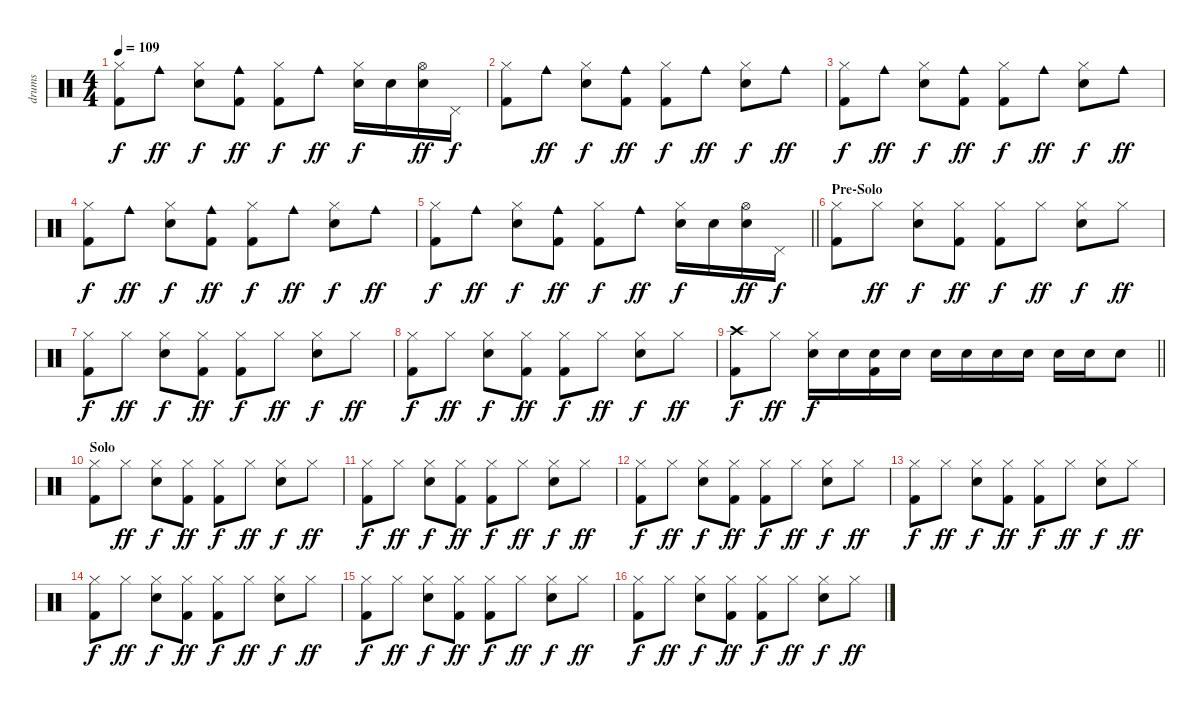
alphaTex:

\track ("drums" "drums") {instrument percussion}
\staff {score}
\articulation defaults
\ts (4 4)
\tempo 109
\clef neutral
\ks aminor
("Hi-Hat (closed)" "Kick (hit) 2").8{dy f} "Cowbell medium (hit)".8{dy ff} ("Hi-Hat (closed)" "Snare (hit) 2").8{dy f} ("Cowbell medium (hit)" "Kick (hit) 2").8{dy ff} ("Hi-Hat (closed)" "Kick (hit) 2").8{dy f} "Cowbell medium (hit)".8{dy ff} ("Hi-Hat (closed)" "Snare (hit) 2").16{dy f} "Snare (hit) 2".16 ("Hi-Hat (open)" "Snare (hit) 2").16{dy ff} "Pedal Hi-Hat (hit)".16{dy f} |
("Hi-Hat (closed)" "Kick (hit) 2").8 "Cowbell medium (hit)".8{dy ff} ("Hi-Hat (closed)" "Snare (hit) 2").8{dy f} ("Cowbell medium (hit)" "Kick (hit) 2").8{dy ff} ("Hi-Hat (closed)" "Kick (hit) 2").8{dy f} "Cowbell medium (hit)".8{dy ff} ("Hi-Hat (closed)" "Snare (hit) 2").8{dy f} "Cowbell medium (hit)".8{dy ff} |
("Hi-Hat (closed)" "Kick (hit) 2").8{dy f} "Cowbell medium (hit)".8{dy ff} ("Hi-Hat (closed)" "Snare (hit) 2").8{dy f} ("Cowbell medium (hit)" "Kick (hit) 2").8{dy ff} ("Hi-Hat (closed)" "Kick (hit) 2").8{dy f} "Cowbell medium (hit)".8{dy ff} ("Hi-Hat (closed)" "Snare (hit) 2").8{dy f} "Cowbell medium (hit)".8{dy ff} |
("Hi-Hat (closed)" "Kick (hit) 2").8{dy f} "Cowbell medium (hit)".8{dy ff} ("Hi-Hat (closed)" "Snare (hit) 2").8{dy f} ("Cowbell medium (hit)" "Kick (hit) 2").8{dy ff} ("Hi-Hat (closed)" "Kick (hit) 2").8{dy f} "Cowbell medium (hit)".8{dy ff} ("Hi-Hat (closed)" "Snare (hit) 2").8{dy f} "Cowbell medium (hit)".8{dy ff} |
\barLineRight lightlight
("Hi-Hat (closed)" "Kick (hit) 2").8{dy f} "Cowbell medium (hit)".8{dy ff} ("Hi-Hat (closed)" "Snare (hit) 2").8{dy f} ("Cowbell medium (hit)" "Kick (hit) 2").8{dy ff} ("Hi-Hat (closed)" "Kick (hit) 2").8{dy f} "Cowbell medium (hit)".8{dy ff} ("Hi-Hat (closed)" "Snare (hit) 2").16{dy f} "Snare (hit) 2".16 ("Hi-Hat (open)" "Snare (hit) 2").16{dy ff} "Pedal Hi-Hat (hit)".16{dy f} |
\section ("" "Pre-Solo")
("Hi-Hat (closed)" "Kick (hit) 2").8 "Hi-Hat (closed)".8{dy ff} ("Hi-Hat (closed)" "Snare (hit) 2").8{dy f} ("Hi-Hat (closed)" "Kick (hit) 2").8{dy ff} ("Hi-Hat (closed)" "Kick (hit) 2").8{dy f} "Hi-Hat (closed)".8{dy ff} ("Hi-Hat (closed)" "Snare (hit) 2").8{dy f} "Hi-Hat (closed)".8{dy ff} |
("Hi-Hat (closed)" "Kick (hit) 2").8{dy f} "Hi-Hat (closed)".8{dy ff} ("Hi-Hat (closed)" "Snare (hit) 2").8{dy f} ("Hi-Hat (closed)" "Kick (hit) 2").8{dy ff} ("Hi-Hat (closed)" "Kick (hit) 2").8{dy f} "Hi-Hat (closed)".8{dy ff} ("Hi-Hat (closed)" "Snare (hit) 2").8{dy f} "Hi-Hat (closed)".8{dy ff} |
("Hi-Hat (closed)" "Kick (hit) 2").8{dy f} "Hi-Hat (closed)".8{dy ff} ("Hi-Hat (closed)" "Snare (hit) 2").8{dy f} ("Hi-Hat (closed)" "Kick (hit) 2").8{dy ff} ("Hi-Hat (closed)" "Kick (hit) 2").8{dy f} "Hi-Hat (closed)".8{dy ff} ("Hi-Hat (closed)" "Snare (hit) 2").8{dy f} "Hi-Hat (closed)".8{dy ff} |
\barLineRight lightlight
("Crash high (hit)" "Kick (hit) 2").8{dy f} "Hi-Hat (closed)".8{dy ff} ("Hi-Hat (closed)" "Snare (hit) 2").16{dy f} "Snare (hit) 2".16 ("Snare (hit) 2" "Kick (hit) 2").16 "Snare (hit) 2".16 "Snare (hit) 2".16 "Snare (hit) 2".16 "Snare (hit) 2".16 "Snare (hit) 2".16 "Snare (hit) 2".16 "Snare (hit) 2".16 "Snare (hit) 2".8 |
\section ("" "Solo")
("Hi-Hat (closed)" "Kick (hit) 2").8 "Hi-Hat (closed)".8{dy ff} ("Hi-Hat (closed)" "Snare (hit) 2").8{dy f} ("Hi-Hat (closed)" "Kick (hit) 2").8{dy ff} ("Hi-Hat (closed)" "Kick (hit) 2").8{dy f} "Hi-Hat (closed)".8{dy ff} ("Hi-Hat (closed)" "Snare (hit) 2").8{dy f} "Hi-Hat (closed)".8{dy ff} |
("Hi-Hat (closed)" "Kick (hit) 2").8{dy f} "Hi-Hat (closed)".8{dy ff} ("Hi-Hat (closed)" "Snare (hit) 2").8{dy f} ("Hi-Hat (closed)" "Kick (hit) 2").8{dy ff} ("Hi-Hat (closed)" "Kick (hit) 2").8{dy f} "Hi-Hat (closed)".8{dy ff} ("Hi-Hat (closed)" "Snare (hit) 2").8{dy f} "Hi-Hat (closed)".8{dy ff} |
("Hi-Hat (closed)" "Kick (hit) 2").8{dy f} "Hi-Hat (closed)".8{dy ff} ("Hi-Hat (closed)" "Snare (hit) 2").8{dy f} ("Hi-Hat (closed)" "Kick (hit) 2").8{dy ff} ("Hi-Hat (closed)" "Kick (hit) 2").8{dy f} "Hi-Hat (closed)".8{dy ff} ("Hi-Hat (closed)" "Snare (hit) 2").8{dy f} "Hi-Hat (closed)".8{dy ff} |
("Hi-Hat (closed)" "Kick (hit) 2").8{dy f} "Hi-Hat (closed)".8{dy ff} ("Hi-Hat (closed)" "Snare (hit) 2").8{dy f} ("Hi-Hat (closed)" "Kick (hit) 2").8{dy ff} ("Hi-Hat (closed)" "Kick (hit) 2").8{dy f} "Hi-Hat (closed)".8{dy ff} ("Hi-Hat (closed)" "Snare (hit) 2").8{dy f} "Hi-Hat (closed)".8{dy ff} |
("Hi-Hat (closed)" "Kick (hit) 2").8{dy f} "Hi-Hat (closed)".8{dy ff} ("Hi-Hat (closed)" "Snare (hit) 2").8{dy f} ("Hi-Hat (closed)" "Kick (hit) 2").8{dy ff} ("Hi-Hat (closed)" "Kick (hit) 2").8{dy f} "Hi-Hat (closed)".8{dy ff} ("Hi-Hat (closed)" "Snare (hit) 2").8{dy f} "Hi-Hat (closed)".8{dy ff} |
("Hi-Hat (closed)" "Kick (hit) 2").8{dy f} "Hi-Hat (closed)".8{dy ff} ("Hi-Hat (closed)" "Snare (hit) 2").8{dy f} ("Hi-Hat (closed)" "Kick (hit) 2").8{dy ff} ("Hi-Hat (closed)" "Kick (hit) 2").8{dy f} "Hi-Hat (closed)".8{dy ff} ("Hi-Hat (closed)" "Snare (hit) 2").8{dy f} "Hi-Hat (closed)".8{dy ff} |
("Hi-Hat (closed)" "Kick (hit) 2").8{dy f} "Hi-Hat (closed)".8{dy ff} ("Hi-Hat (closed)" "Snare (hit) 2").8{dy f} ("Hi-Hat (closed)" "Kick (hit) 2").8{dy ff} ("Hi-Hat (closed)" "Kick (hit) 2").8{dy f} "Hi-Hat (closed)".8{dy ff} ("Hi-Hat (closed)" "Snare (hit) 2").8{dy f} "Hi-Hat (closed)".8{dy ff}
